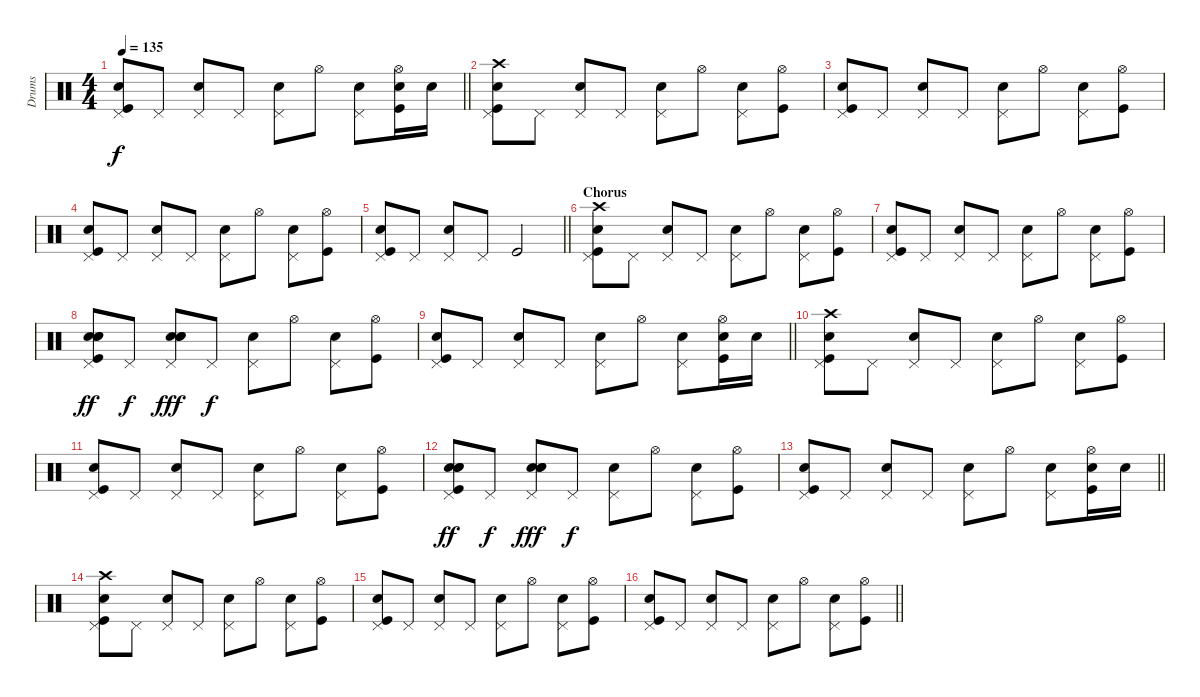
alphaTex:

\track ("Drums" "Drums") {instrument percussion}
\staff {score}
\articulation defaults
\ts (4 4)
\tempo 135
\clef neutral
\barLineRight lightlight
\ks c
("Pedal Hi-Hat (hit)" "Kick (hit)" "Electric Snare (hit)").8{dy f} "Pedal Hi-Hat (hit)".8 ("Pedal Hi-Hat (hit)" "Electric Snare (hit)").8 "Pedal Hi-Hat (hit)".8 ("Pedal Hi-Hat (hit)" "Electric Snare (hit)").8 "Hi-Hat (open)".8 ("Pedal Hi-Hat (hit)" "Electric Snare (hit)").8 ("Hi-Hat (open)" "Kick (hit)" "Electric Snare (hit)").16 "Electric Snare (hit)".16 |
("Pedal Hi-Hat (hit)" "Kick (hit)" "Electric Snare (hit)" "Crash high (hit)").8 "Pedal Hi-Hat (hit)".8 ("Pedal Hi-Hat (hit)" "Electric Snare (hit)").8 "Pedal Hi-Hat (hit)".8 ("Pedal Hi-Hat (hit)" "Electric Snare (hit)").8 "Hi-Hat (open)".8 ("Pedal Hi-Hat (hit)" "Electric Snare (hit)").8 ("Hi-Hat (open)" "Kick (hit)").8 |
("Pedal Hi-Hat (hit)" "Kick (hit)" "Electric Snare (hit)").8 "Pedal Hi-Hat (hit)".8 ("Pedal Hi-Hat (hit)" "Electric Snare (hit)").8 "Pedal Hi-Hat (hit)".8 ("Pedal Hi-Hat (hit)" "Electric Snare (hit)").8 "Hi-Hat (open)".8 ("Pedal Hi-Hat (hit)" "Electric Snare (hit)").8 ("Hi-Hat (open)" "Kick (hit)").8 |
("Pedal Hi-Hat (hit)" "Kick (hit)" "Electric Snare (hit)").8 "Pedal Hi-Hat (hit)".8 ("Pedal Hi-Hat (hit)" "Electric Snare (hit)").8 "Pedal Hi-Hat (hit)".8 ("Pedal Hi-Hat (hit)" "Electric Snare (hit)").8 "Hi-Hat (open)".8 ("Pedal Hi-Hat (hit)" "Electric Snare (hit)").8 ("Hi-Hat (open)" "Kick (hit)").8 |
\barLineRight lightlight
("Pedal Hi-Hat (hit)" "Kick (hit)" "Electric Snare (hit)").8 "Pedal Hi-Hat (hit)".8 ("Pedal Hi-Hat (hit)" "Electric Snare (hit)").8 "Pedal Hi-Hat (hit)".8 "Kick (hit)".2 |
\section ("" "Chorus")
("Pedal Hi-Hat (hit)" "Kick (hit)" "Electric Snare (hit)" "Crash high (hit)").8 "Pedal Hi-Hat (hit)".8 ("Pedal Hi-Hat (hit)" "Electric Snare (hit)").8 "Pedal Hi-Hat (hit)".8 ("Pedal Hi-Hat (hit)" "Electric Snare (hit)").8 "Hi-Hat (open)".8 ("Pedal Hi-Hat (hit)" "Electric Snare (hit)").8 ("Hi-Hat (open)" "Kick (hit)").8 |
("Pedal Hi-Hat (hit)" "Kick (hit)" "Electric Snare (hit)").8 "Pedal Hi-Hat (hit)".8 ("Pedal Hi-Hat (hit)" "Electric Snare (hit)").8 "Pedal Hi-Hat (hit)".8 ("Pedal Hi-Hat (hit)" "Electric Snare (hit)").8 "Hi-Hat (open)".8 ("Pedal Hi-Hat (hit)" "Electric Snare (hit)").8 ("Hi-Hat (open)" "Kick (hit)").8 |
("Pedal Hi-Hat (hit)" "Kick (hit)" "Electric Snare (hit)" "Hand Clap (hit)" "Hand Clap (hit)").8{dy ff} "Pedal Hi-Hat (hit)".8{dy f} ("Pedal Hi-Hat (hit)" "Electric Snare (hit)" "Hand Clap (hit)" "Hand Clap (hit)").8{dy fff} "Pedal Hi-Hat (hit)".8{dy f} ("Pedal Hi-Hat (hit)" "Electric Snare (hit)").8 "Hi-Hat (open)".8 ("Pedal Hi-Hat (hit)" "Electric Snare (hit)").8 ("Hi-Hat (open)" "Kick (hit)").8 |
\barLineRight lightlight
("Pedal Hi-Hat (hit)" "Kick (hit)" "Electric Snare (hit)").8 "Pedal Hi-Hat (hit)".8 ("Pedal Hi-Hat (hit)" "Electric Snare (hit)").8 "Pedal Hi-Hat (hit)".8 ("Pedal Hi-Hat (hit)" "Electric Snare (hit)").8 "Hi-Hat (open)".8 ("Pedal Hi-Hat (hit)" "Electric Snare (hit)").8 ("Hi-Hat (open)" "Kick (hit)" "Electric Snare (hit)").16 "Electric Snare (hit)".16 |
("Pedal Hi-Hat (hit)" "Kick (hit)" "Electric Snare (hit)" "Crash high (hit)").8 "Pedal Hi-Hat (hit)".8 ("Pedal Hi-Hat (hit)" "Electric Snare (hit)").8 "Pedal Hi-Hat (hit)".8 ("Pedal Hi-Hat (hit)" "Electric Snare (hit)").8 "Hi-Hat (open)".8 ("Pedal Hi-Hat (hit)" "Electric Snare (hit)").8 ("Hi-Hat (open)" "Kick (hit)").8 |
("Pedal Hi-Hat (hit)" "Kick (hit)" "Electric Snare (hit)").8 "Pedal Hi-Hat (hit)".8 ("Pedal Hi-Hat (hit)" "Electric Snare (hit)").8 "Pedal Hi-Hat (hit)".8 ("Pedal Hi-Hat (hit)" "Electric Snare (hit)").8 "Hi-Hat (open)".8 ("Pedal Hi-Hat (hit)" "Electric Snare (hit)").8 ("Hi-Hat (open)" "Kick (hit)").8 |
("Pedal Hi-Hat (hit)" "Kick (hit)" "Electric Snare (hit)" "Hand Clap (hit)" "Hand Clap (hit)").8{dy ff} "Pedal Hi-Hat (hit)".8{dy f} ("Pedal Hi-Hat (hit)" "Electric Snare (hit)" "Hand Clap (hit)" "Hand Clap (hit)").8{dy fff} "Pedal Hi-Hat (hit)".8{dy f} ("Pedal Hi-Hat (hit)" "Electric Snare (hit)").8 "Hi-Hat (open)".8 ("Pedal Hi-Hat (hit)" "Electric Snare (hit)").8 ("Hi-Hat (open)" "Kick (hit)").8 |
\barLineRight lightlight
("Pedal Hi-Hat (hit)" "Kick (hit)" "Electric Snare (hit)").8 "Pedal Hi-Hat (hit)".8 ("Pedal Hi-Hat (hit)" "Electric Snare (hit)").8 "Pedal Hi-Hat (hit)".8 ("Pedal Hi-Hat (hit)" "Electric Snare (hit)").8 "Hi-Hat (open)".8 ("Pedal Hi-Hat (hit)" "Electric Snare (hit)").8 ("Hi-Hat (open)" "Kick (hit)" "Electric Snare (hit)").16 "Electric Snare (hit)".16 |
("Pedal Hi-Hat (hit)" "Kick (hit)" "Electric Snare (hit)" "Crash high (hit)").8 "Pedal Hi-Hat (hit)".8 ("Pedal Hi-Hat (hit)" "Electric Snare (hit)").8 "Pedal Hi-Hat (hit)".8 ("Pedal Hi-Hat (hit)" "Electric Snare (hit)").8 "Hi-Hat (open)".8 ("Pedal Hi-Hat (hit)" "Electric Snare (hit)").8 ("Hi-Hat (open)" "Kick (hit)").8 |
("Pedal Hi-Hat (hit)" "Kick (hit)" "Electric Snare (hit)").8 "Pedal Hi-Hat (hit)".8 ("Pedal Hi-Hat (hit)" "Electric Snare (hit)").8 "Pedal Hi-Hat (hit)".8 ("Pedal Hi-Hat (hit)" "Electric Snare (hit)").8 "Hi-Hat (open)".8 ("Pedal Hi-Hat (hit)" "Electric Snare (hit)").8 ("Hi-Hat (open)" "Kick (hit)").8 |
\barLineRight lightlight
("Pedal Hi-Hat (hit)" "Kick (hit)" "Electric Snare (hit)").8 "Pedal Hi-Hat (hit)".8 ("Pedal Hi-Hat (hit)" "Electric Snare (hit)").8 "Pedal Hi-Hat (hit)".8 ("Pedal Hi-Hat (hit)" "Electric Snare (hit)").8 "Hi-Hat (open)".8 ("Pedal Hi-Hat (hit)" "Electric Snare (hit)").8 ("Hi-Hat (open)" "Kick (hit)").8
